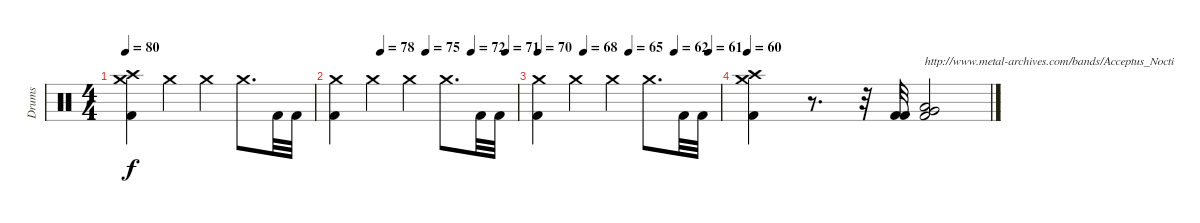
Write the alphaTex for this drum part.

\track ("Drums" "Drums") {instrument percussion}
\staff {score}
\articulation defaults
\ts (4 4)
\tempo 80
\clef neutral
\ks c
("Kick (hit) 2" "Crash medium (hit)" "Crash high (hit)").4{dy f} "Crash medium (hit)".4 "Crash medium (hit)".4 "Crash medium (hit)".8{d} "Kick (hit) 2".32 "Kick (hit) 2".32 |
\tempo (78 0.25)
\tempo (75 0.5)
\tempo (72 0.75)
\tempo (71 0.9375)
("Kick (hit) 2" "Crash medium (hit)").4 "Crash medium (hit)".4 "Crash medium (hit)".4 "Crash medium (hit)".8{d} "Kick (hit) 2".32 "Kick (hit) 2".32 |
\tempo 70
\tempo (68 0.25)
\tempo (65 0.5)
\tempo (62 0.75)
\tempo (61 0.9375)
("Kick (hit) 2" "Crash medium (hit)").4 "Crash medium (hit)".4 "Crash medium (hit)".4 "Crash medium (hit)".8{d} "Kick (hit) 2".32 "Kick (hit) 2".32 |
\tempo 60
("Kick (hit) 2" "Crash medium (hit)" "Crash high (hit)").4 r.8{d} r.32 ("Kick (hit) 2" "Kick (hit) 2").32 ("Kick (hit) 2" "Very Low Tom (hit)" "Low Tom (hit)").2{txt "http://www.metal-archives.com/bands/Acceptus_Nocti"}
